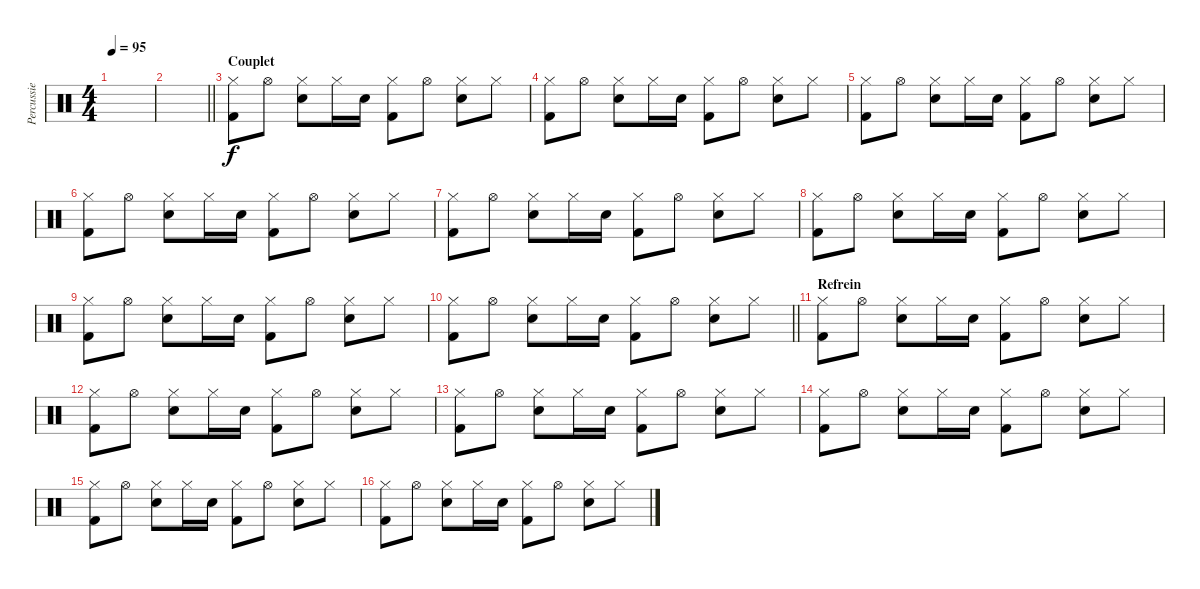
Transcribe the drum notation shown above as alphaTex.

\track ("Percussie" "Percussie") {instrument percussion}
\staff {score}
\articulation defaults
\ts (4 4)
\tempo 95
\clef neutral
\ks c
|
\barLineRight lightlight
|
\section ("" "Couplet ")
("Hi-Hat (closed)" "Kick (hit) 2").8 "Hi-Hat (open)".8 ("Hi-Hat (closed)" "Snare (hit) 2").8 "Hi-Hat (closed)".16 "Snare (hit) 2".16 ("Hi-Hat (closed)" "Kick (hit) 2").8 "Hi-Hat (open)".8 ("Hi-Hat (closed)" "Snare (hit) 2").8 "Hi-Hat (closed)".8 |
("Hi-Hat (closed)" "Kick (hit) 2").8 "Hi-Hat (open)".8 ("Hi-Hat (closed)" "Snare (hit) 2").8 "Hi-Hat (closed)".16 "Snare (hit) 2".16 ("Hi-Hat (closed)" "Kick (hit) 2").8 "Hi-Hat (open)".8 ("Hi-Hat (closed)" "Snare (hit) 2").8 "Hi-Hat (closed)".8 |
("Hi-Hat (closed)" "Kick (hit) 2").8 "Hi-Hat (open)".8 ("Hi-Hat (closed)" "Snare (hit) 2").8 "Hi-Hat (closed)".16 "Snare (hit) 2".16 ("Hi-Hat (closed)" "Kick (hit) 2").8 "Hi-Hat (open)".8 ("Hi-Hat (closed)" "Snare (hit) 2").8 "Hi-Hat (closed)".8 |
("Hi-Hat (closed)" "Kick (hit) 2").8 "Hi-Hat (open)".8 ("Hi-Hat (closed)" "Snare (hit) 2").8 "Hi-Hat (closed)".16 "Snare (hit) 2".16 ("Hi-Hat (closed)" "Kick (hit) 2").8 "Hi-Hat (open)".8 ("Hi-Hat (closed)" "Snare (hit) 2").8 "Hi-Hat (closed)".8 |
("Hi-Hat (closed)" "Kick (hit) 2").8 "Hi-Hat (open)".8 ("Hi-Hat (closed)" "Snare (hit) 2").8 "Hi-Hat (closed)".16 "Snare (hit) 2".16 ("Hi-Hat (closed)" "Kick (hit) 2").8 "Hi-Hat (open)".8 ("Hi-Hat (closed)" "Snare (hit) 2").8 "Hi-Hat (closed)".8 |
("Hi-Hat (closed)" "Kick (hit) 2").8 "Hi-Hat (open)".8 ("Hi-Hat (closed)" "Snare (hit) 2").8 "Hi-Hat (closed)".16 "Snare (hit) 2".16 ("Hi-Hat (closed)" "Kick (hit) 2").8 "Hi-Hat (open)".8 ("Hi-Hat (closed)" "Snare (hit) 2").8 "Hi-Hat (closed)".8 |
("Hi-Hat (closed)" "Kick (hit) 2").8 "Hi-Hat (open)".8 ("Hi-Hat (closed)" "Snare (hit) 2").8 "Hi-Hat (closed)".16 "Snare (hit) 2".16 ("Hi-Hat (closed)" "Kick (hit) 2").8 "Hi-Hat (open)".8 ("Hi-Hat (closed)" "Snare (hit) 2").8 "Hi-Hat (closed)".8 |
\barLineRight lightlight
("Hi-Hat (closed)" "Kick (hit) 2").8 "Hi-Hat (open)".8 ("Hi-Hat (closed)" "Snare (hit) 2").8 "Hi-Hat (closed)".16 "Snare (hit) 2".16 ("Hi-Hat (closed)" "Kick (hit) 2").8 "Hi-Hat (open)".8 ("Hi-Hat (closed)" "Snare (hit) 2").8 "Hi-Hat (closed)".8 |
\section ("" "Refrein")
("Hi-Hat (closed)" "Kick (hit) 2").8 "Hi-Hat (open)".8 ("Hi-Hat (closed)" "Snare (hit) 2").8 "Hi-Hat (closed)".16 "Snare (hit) 2".16 ("Hi-Hat (closed)" "Kick (hit) 2").8 "Hi-Hat (open)".8 ("Hi-Hat (closed)" "Snare (hit) 2").8 "Hi-Hat (closed)".8 |
("Hi-Hat (closed)" "Kick (hit) 2").8 "Hi-Hat (open)".8 ("Hi-Hat (closed)" "Snare (hit) 2").8 "Hi-Hat (closed)".16 "Snare (hit) 2".16 ("Hi-Hat (closed)" "Kick (hit) 2").8 "Hi-Hat (open)".8 ("Hi-Hat (closed)" "Snare (hit) 2").8 "Hi-Hat (closed)".8 |
("Hi-Hat (closed)" "Kick (hit) 2").8 "Hi-Hat (open)".8 ("Hi-Hat (closed)" "Snare (hit) 2").8 "Hi-Hat (closed)".16 "Snare (hit) 2".16 ("Hi-Hat (closed)" "Kick (hit) 2").8 "Hi-Hat (open)".8 ("Hi-Hat (closed)" "Snare (hit) 2").8 "Hi-Hat (closed)".8 |
("Hi-Hat (closed)" "Kick (hit) 2").8 "Hi-Hat (open)".8 ("Hi-Hat (closed)" "Snare (hit) 2").8 "Hi-Hat (closed)".16 "Snare (hit) 2".16 ("Hi-Hat (closed)" "Kick (hit) 2").8 "Hi-Hat (open)".8 ("Hi-Hat (closed)" "Snare (hit) 2").8 "Hi-Hat (closed)".8 |
("Hi-Hat (closed)" "Kick (hit) 2").8 "Hi-Hat (open)".8 ("Hi-Hat (closed)" "Snare (hit) 2").8 "Hi-Hat (closed)".16 "Snare (hit) 2".16 ("Hi-Hat (closed)" "Kick (hit) 2").8 "Hi-Hat (open)".8 ("Hi-Hat (closed)" "Snare (hit) 2").8 "Hi-Hat (closed)".8 |
("Hi-Hat (closed)" "Kick (hit) 2").8 "Hi-Hat (open)".8 ("Hi-Hat (closed)" "Snare (hit) 2").8 "Hi-Hat (closed)".16 "Snare (hit) 2".16 ("Hi-Hat (closed)" "Kick (hit) 2").8 "Hi-Hat (open)".8 ("Hi-Hat (closed)" "Snare (hit) 2").8 "Hi-Hat (closed)".8
